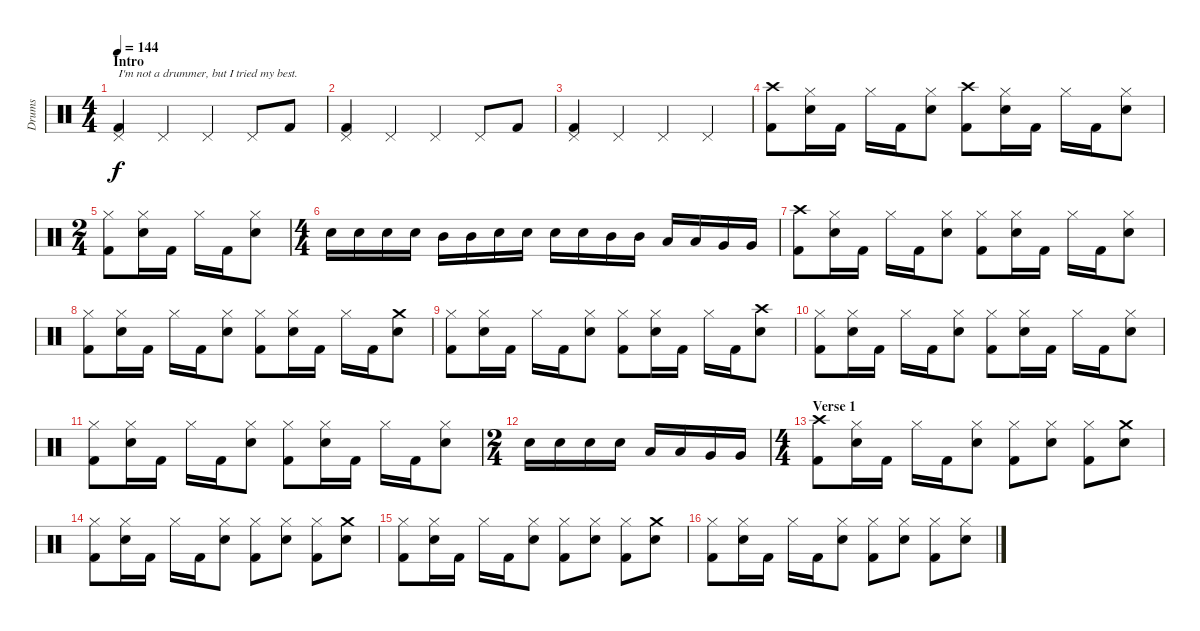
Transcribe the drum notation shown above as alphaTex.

\track ("Drums" "Drums") {instrument percussion}
\staff {score}
\articulation defaults
\ts (4 4)
\section ("" "Intro")
\tempo 144
\clef neutral
\ks c
("Pedal Hi-Hat (hit)" "Kick (hit) 2").4{txt "I'm not a drummer, but I tried my best." dy f} "Pedal Hi-Hat (hit)".4 "Pedal Hi-Hat (hit)".4 "Pedal Hi-Hat (hit)".8 "Kick (hit) 2".8 |
("Pedal Hi-Hat (hit)" "Kick (hit) 2").4 "Pedal Hi-Hat (hit)".4 "Pedal Hi-Hat (hit)".4 "Pedal Hi-Hat (hit)".8 "Kick (hit) 2".8 |
("Pedal Hi-Hat (hit)" "Kick (hit) 2").4 "Pedal Hi-Hat (hit)".4 "Pedal Hi-Hat (hit)".4 "Pedal Hi-Hat (hit)".4 |
("Crash high (hit)" "Kick (hit) 2").8 ("Hi-Hat (closed)" "Electric Snare (hit)").16 "Kick (hit) 2".16 "Hi-Hat (closed)".16 "Kick (hit) 2".16 ("Hi-Hat (closed)" "Electric Snare (hit)").8 ("Crash high (hit)" "Kick (hit) 2").8 ("Hi-Hat (closed)" "Electric Snare (hit)").16 "Kick (hit) 2".16 "Hi-Hat (closed)".16 "Kick (hit) 2".16 ("Hi-Hat (closed)" "Electric Snare (hit)").8 |
\ts (2 4)
("Hi-Hat (closed)" "Kick (hit) 2").8 ("Hi-Hat (closed)" "Electric Snare (hit)").16 "Kick (hit) 2".16 "Hi-Hat (closed)".16 "Kick (hit) 2".16 ("Hi-Hat (closed)" "Electric Snare (hit)").8 |
\ts (4 4)
"Electric Snare (hit)".16 "Electric Snare (hit)".16 "Electric Snare (hit)".16 "Electric Snare (hit)".16 "Mid Tom (hit)".16 "Mid Tom (hit)".16 "Electric Snare (hit)".16 "Electric Snare (hit)".16 "Electric Snare (hit)".16 "Electric Snare (hit)".16 "Mid Tom (hit)".16 "Mid Tom (hit)".16 "Low Tom (hit)".16 "Low Tom (hit)".16 "Very Low Tom (hit)".16 "Very Low Tom (hit)".16 |
("Crash high (hit)" "Kick (hit) 2").8 ("Hi-Hat (closed)" "Electric Snare (hit)").16 "Kick (hit) 2".16 "Hi-Hat (closed)".16 "Kick (hit) 2".16 ("Hi-Hat (closed)" "Electric Snare (hit)").8 ("Hi-Hat (closed)" "Kick (hit) 2").8 ("Hi-Hat (closed)" "Electric Snare (hit)").16 "Kick (hit) 2".16 "Hi-Hat (closed)".16 "Kick (hit) 2".16 ("Hi-Hat (closed)" "Electric Snare (hit)").8 |
("Hi-Hat (closed)" "Kick (hit) 2").8 ("Hi-Hat (closed)" "Electric Snare (hit)").16 "Kick (hit) 2".16 "Hi-Hat (closed)".16 "Kick (hit) 2".16 ("Hi-Hat (closed)" "Electric Snare (hit)").8 ("Hi-Hat (closed)" "Kick (hit) 2").8 ("Hi-Hat (closed)" "Electric Snare (hit)").16 "Kick (hit) 2".16 "Hi-Hat (closed)".16 "Kick (hit) 2".16 ("Crash medium (hit)" "Electric Snare (hit)").8 |
("Hi-Hat (closed)" "Kick (hit) 2").8 ("Hi-Hat (closed)" "Electric Snare (hit)").16 "Kick (hit) 2".16 "Hi-Hat (closed)".16 "Kick (hit) 2".16 ("Hi-Hat (closed)" "Electric Snare (hit)").8 ("Hi-Hat (closed)" "Kick (hit) 2").8 ("Hi-Hat (closed)" "Electric Snare (hit)").16 "Kick (hit) 2".16 "Hi-Hat (closed)".16 "Kick (hit) 2".16 ("Crash high (hit)" "Electric Snare (hit)").8 |
("Hi-Hat (closed)" "Kick (hit) 2").8 ("Hi-Hat (closed)" "Electric Snare (hit)").16 "Kick (hit) 2".16 "Hi-Hat (closed)".16 "Kick (hit) 2".16 ("Hi-Hat (closed)" "Electric Snare (hit)").8 ("Hi-Hat (closed)" "Kick (hit) 2").8 ("Hi-Hat (closed)" "Electric Snare (hit)").16 "Kick (hit) 2".16 "Hi-Hat (closed)".16 "Kick (hit) 2".16 ("Hi-Hat (closed)" "Electric Snare (hit)").8 |
("Hi-Hat (closed)" "Kick (hit) 2").8 ("Hi-Hat (closed)" "Electric Snare (hit)").16 "Kick (hit) 2".16 "Hi-Hat (closed)".16 "Kick (hit) 2".16 ("Hi-Hat (closed)" "Electric Snare (hit)").8 ("Hi-Hat (closed)" "Kick (hit) 2").8 ("Hi-Hat (closed)" "Electric Snare (hit)").16 "Kick (hit) 2".16 "Hi-Hat (closed)".16 "Kick (hit) 2".16 ("Hi-Hat (closed)" "Electric Snare (hit)").8 |
\ts (2 4)
"Electric Snare (hit)".16 "Electric Snare (hit)".16 "Electric Snare (hit)".16 "Electric Snare (hit)".16 "Low Tom (hit)".16 "Low Tom (hit)".16 "Very Low Tom (hit)".16 "Very Low Tom (hit)".16 |
\ts (4 4)
\section ("" "Verse 1")
("Crash high (hit)" "Kick (hit) 2").8 ("Hi-Hat (closed)" "Electric Snare (hit)").16 "Kick (hit) 2".16 "Hi-Hat (closed)".16 "Kick (hit) 2".16 ("Hi-Hat (closed)" "Electric Snare (hit)").8 ("Hi-Hat (closed)" "Kick (hit) 2").8 ("Hi-Hat (closed)" "Electric Snare (hit)").8 ("Hi-Hat (closed)" "Kick (hit) 2").8 ("Crash medium (hit)" "Electric Snare (hit)").8 |
("Hi-Hat (closed)" "Kick (hit) 2").8 ("Hi-Hat (closed)" "Electric Snare (hit)").16 "Kick (hit) 2".16 "Hi-Hat (closed)".16 "Kick (hit) 2".16 ("Hi-Hat (closed)" "Electric Snare (hit)").8 ("Hi-Hat (closed)" "Kick (hit) 2").8 ("Hi-Hat (closed)" "Electric Snare (hit)").8 ("Hi-Hat (closed)" "Kick (hit) 2").8 ("Crash medium (hit)" "Electric Snare (hit)").8 |
("Hi-Hat (closed)" "Kick (hit) 2").8 ("Hi-Hat (closed)" "Electric Snare (hit)").16 "Kick (hit) 2".16 "Hi-Hat (closed)".16 "Kick (hit) 2".16 ("Hi-Hat (closed)" "Electric Snare (hit)").8 ("Hi-Hat (closed)" "Kick (hit) 2").8 ("Hi-Hat (closed)" "Electric Snare (hit)").8 ("Hi-Hat (closed)" "Kick (hit) 2").8 ("Crash medium (hit)" "Electric Snare (hit)").8 |
("Hi-Hat (closed)" "Kick (hit) 2").8 ("Hi-Hat (closed)" "Electric Snare (hit)").16 "Kick (hit) 2".16 "Hi-Hat (closed)".16 "Kick (hit) 2".16 ("Hi-Hat (closed)" "Electric Snare (hit)").8 ("Hi-Hat (closed)" "Kick (hit) 2").8 ("Hi-Hat (closed)" "Electric Snare (hit)").8 ("Hi-Hat (closed)" "Kick (hit) 2").8 ("Hi-Hat (closed)" "Electric Snare (hit)").8
